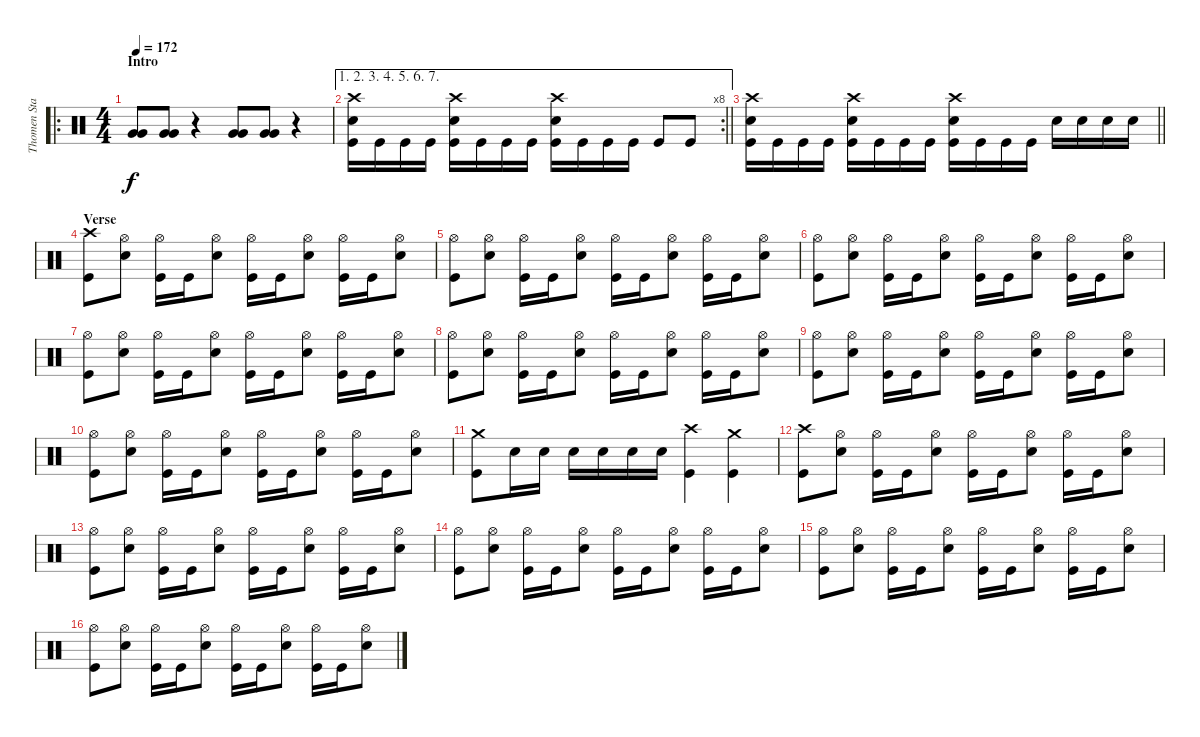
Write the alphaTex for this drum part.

\track ("Thomen Stauch" "Thomen Sta") {instrument percussion}
\staff {score}
\articulation defaults
\ro
\ts (4 4)
\section ("" "Intro")
\tempo 172
\clef neutral
\ks c
("Very Low Tom (hit)" "Very Low Tom (hit)").8{dy f} ("Very Low Tom (hit)" "Very Low Tom (hit)").8 r.4 ("Very Low Tom (hit)" "Very Low Tom (hit)").8 ("Very Low Tom (hit)" "Very Low Tom (hit)").8 r.4 |
\ae (1 2 3 4 5 6 7)
\rc 8
\barLineRight lightlight
("Crash high (hit)" "Snare (hit) 2" "Kick (hit)").16 "Kick (hit)".16 "Kick (hit)".16 "Kick (hit)".16 ("Crash high (hit)" "Snare (hit) 2" "Kick (hit)").16 "Kick (hit)".16 "Kick (hit)".16 "Kick (hit)".16 ("Crash high (hit)" "Snare (hit) 2" "Kick (hit)").16 "Kick (hit)".16 "Kick (hit)".16 "Kick (hit)".16 "Kick (hit)".8 "Kick (hit)".8 |
\barLineRight lightlight
("Crash high (hit)" "Snare (hit) 2" "Kick (hit)").16 "Kick (hit)".16 "Kick (hit)".16 "Kick (hit)".16 ("Crash high (hit)" "Snare (hit) 2" "Kick (hit)").16 "Kick (hit)".16 "Kick (hit)".16 "Kick (hit)".16 ("Crash high (hit)" "Snare (hit) 2" "Kick (hit)").16 "Kick (hit)".16 "Kick (hit)".16 "Kick (hit)".16 "Snare (hit) 2".16 "Snare (hit) 2".16 "Snare (hit) 2".16 "Snare (hit) 2".16 |
\section ("" "Verse")
("Crash high (hit)" "Kick (hit)").8 ("Hi-Hat (open)" "Snare (hit) 2").8 ("Hi-Hat (open)" "Kick (hit)").16 "Kick (hit)".16 ("Hi-Hat (open)" "Snare (hit) 2").8 ("Hi-Hat (open)" "Kick (hit)").16 "Kick (hit)".16 ("Hi-Hat (open)" "Snare (hit) 2").8 ("Hi-Hat (open)" "Kick (hit)").16 "Kick (hit)".16 ("Hi-Hat (open)" "Snare (hit) 2").8 |
("Hi-Hat (open)" "Kick (hit)").8 ("Hi-Hat (open)" "Snare (hit) 2").8 ("Hi-Hat (open)" "Kick (hit)").16 "Kick (hit)".16 ("Hi-Hat (open)" "Snare (hit) 2").8 ("Hi-Hat (open)" "Kick (hit)").16 "Kick (hit)".16 ("Hi-Hat (open)" "Snare (hit) 2").8 ("Hi-Hat (open)" "Kick (hit)").16 "Kick (hit)".16 ("Hi-Hat (open)" "Snare (hit) 2").8 |
("Hi-Hat (open)" "Kick (hit)").8 ("Hi-Hat (open)" "Snare (hit) 2").8 ("Hi-Hat (open)" "Kick (hit)").16 "Kick (hit)".16 ("Hi-Hat (open)" "Snare (hit) 2").8 ("Hi-Hat (open)" "Kick (hit)").16 "Kick (hit)".16 ("Hi-Hat (open)" "Snare (hit) 2").8 ("Hi-Hat (open)" "Kick (hit)").16 "Kick (hit)".16 ("Hi-Hat (open)" "Snare (hit) 2").8 |
("Hi-Hat (open)" "Kick (hit)").8 ("Hi-Hat (open)" "Snare (hit) 2").8 ("Hi-Hat (open)" "Kick (hit)").16 "Kick (hit)".16 ("Hi-Hat (open)" "Snare (hit) 2").8 ("Hi-Hat (open)" "Kick (hit)").16 "Kick (hit)".16 ("Hi-Hat (open)" "Snare (hit) 2").8 ("Hi-Hat (open)" "Kick (hit)").16 "Kick (hit)".16 ("Hi-Hat (open)" "Snare (hit) 2").8 |
("Hi-Hat (open)" "Kick (hit)").8 ("Hi-Hat (open)" "Snare (hit) 2").8 ("Hi-Hat (open)" "Kick (hit)").16 "Kick (hit)".16 ("Hi-Hat (open)" "Snare (hit) 2").8 ("Hi-Hat (open)" "Kick (hit)").16 "Kick (hit)".16 ("Hi-Hat (open)" "Snare (hit) 2").8 ("Hi-Hat (open)" "Kick (hit)").16 "Kick (hit)".16 ("Hi-Hat (open)" "Snare (hit) 2").8 |
("Hi-Hat (open)" "Kick (hit)").8 ("Hi-Hat (open)" "Snare (hit) 2").8 ("Hi-Hat (open)" "Kick (hit)").16 "Kick (hit)".16 ("Hi-Hat (open)" "Snare (hit) 2").8 ("Hi-Hat (open)" "Kick (hit)").16 "Kick (hit)".16 ("Hi-Hat (open)" "Snare (hit) 2").8 ("Hi-Hat (open)" "Kick (hit)").16 "Kick (hit)".16 ("Hi-Hat (open)" "Snare (hit) 2").8 |
("Hi-Hat (open)" "Kick (hit)").8 ("Hi-Hat (open)" "Snare (hit) 2").8 ("Hi-Hat (open)" "Kick (hit)").16 "Kick (hit)".16 ("Hi-Hat (open)" "Snare (hit) 2").8 ("Hi-Hat (open)" "Kick (hit)").16 "Kick (hit)".16 ("Hi-Hat (open)" "Snare (hit) 2").8 ("Hi-Hat (open)" "Kick (hit)").16 "Kick (hit)".16 ("Hi-Hat (open)" "Snare (hit) 2").8 |
("Crash medium (hit)" "Kick (hit)").8 "Snare (hit) 2".16 "Snare (hit) 2".16 "Snare (hit) 2".16 "Snare (hit) 2".16 "Snare (hit) 2".16 "Snare (hit) 2".16 ("Crash high (hit)" "Kick (hit)").4 ("Crash medium (hit)" "Kick (hit)").4 |
("Crash high (hit)" "Kick (hit)").8 ("Hi-Hat (open)" "Snare (hit) 2").8 ("Hi-Hat (open)" "Kick (hit)").16 "Kick (hit)".16 ("Hi-Hat (open)" "Snare (hit) 2").8 ("Hi-Hat (open)" "Kick (hit)").16 "Kick (hit)".16 ("Hi-Hat (open)" "Snare (hit) 2").8 ("Hi-Hat (open)" "Kick (hit)").16 "Kick (hit)".16 ("Hi-Hat (open)" "Snare (hit) 2").8 |
("Hi-Hat (open)" "Kick (hit)").8 ("Hi-Hat (open)" "Snare (hit) 2").8 ("Hi-Hat (open)" "Kick (hit)").16 "Kick (hit)".16 ("Hi-Hat (open)" "Snare (hit) 2").8 ("Hi-Hat (open)" "Kick (hit)").16 "Kick (hit)".16 ("Hi-Hat (open)" "Snare (hit) 2").8 ("Hi-Hat (open)" "Kick (hit)").16 "Kick (hit)".16 ("Hi-Hat (open)" "Snare (hit) 2").8 |
("Hi-Hat (open)" "Kick (hit)").8 ("Hi-Hat (open)" "Snare (hit) 2").8 ("Hi-Hat (open)" "Kick (hit)").16 "Kick (hit)".16 ("Hi-Hat (open)" "Snare (hit) 2").8 ("Hi-Hat (open)" "Kick (hit)").16 "Kick (hit)".16 ("Hi-Hat (open)" "Snare (hit) 2").8 ("Hi-Hat (open)" "Kick (hit)").16 "Kick (hit)".16 ("Hi-Hat (open)" "Snare (hit) 2").8 |
("Hi-Hat (open)" "Kick (hit)").8 ("Hi-Hat (open)" "Snare (hit) 2").8 ("Hi-Hat (open)" "Kick (hit)").16 "Kick (hit)".16 ("Hi-Hat (open)" "Snare (hit) 2").8 ("Hi-Hat (open)" "Kick (hit)").16 "Kick (hit)".16 ("Hi-Hat (open)" "Snare (hit) 2").8 ("Hi-Hat (open)" "Kick (hit)").16 "Kick (hit)".16 ("Hi-Hat (open)" "Snare (hit) 2").8 |
("Hi-Hat (open)" "Kick (hit)").8 ("Hi-Hat (open)" "Snare (hit) 2").8 ("Hi-Hat (open)" "Kick (hit)").16 "Kick (hit)".16 ("Hi-Hat (open)" "Snare (hit) 2").8 ("Hi-Hat (open)" "Kick (hit)").16 "Kick (hit)".16 ("Hi-Hat (open)" "Snare (hit) 2").8 ("Hi-Hat (open)" "Kick (hit)").16 "Kick (hit)".16 ("Hi-Hat (open)" "Snare (hit) 2").8
